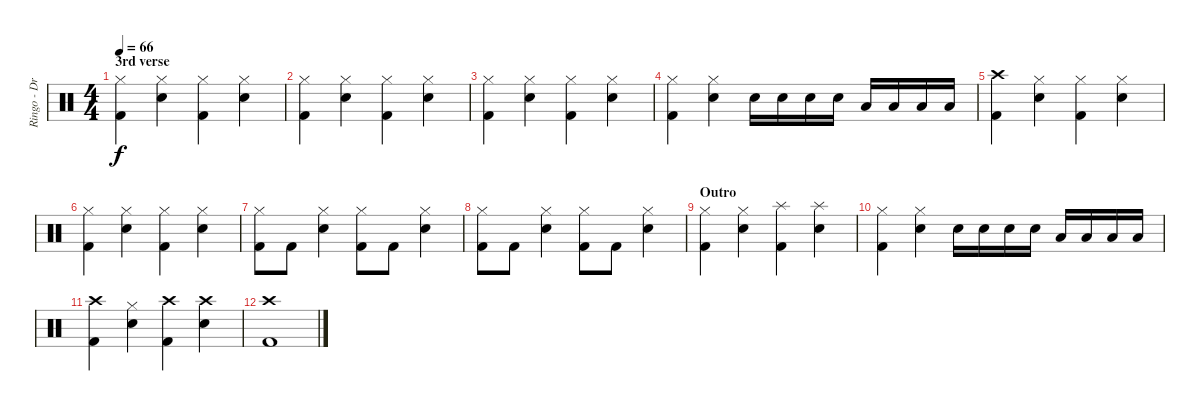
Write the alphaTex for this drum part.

\track ("Ringo - Drums" "Ringo - Dr") {instrument percussion}
\staff {score}
\articulation defaults
\ts (4 4)
\section ("" "3rd verse")
\tempo 66
\clef neutral
\ks c
("Hi-Hat (closed)" "Kick (hit) 2").4{dy f} ("Hi-Hat (closed)" "Snare (hit) 2").4 ("Hi-Hat (closed)" "Kick (hit) 2").4 ("Hi-Hat (closed)" "Snare (hit) 2").4 |
("Hi-Hat (closed)" "Kick (hit) 2").4 ("Hi-Hat (closed)" "Snare (hit) 2").4 ("Hi-Hat (closed)" "Kick (hit) 2").4 ("Hi-Hat (closed)" "Snare (hit) 2").4 |
("Hi-Hat (closed)" "Kick (hit) 2").4 ("Hi-Hat (closed)" "Snare (hit) 2").4 ("Hi-Hat (closed)" "Kick (hit) 2").4 ("Hi-Hat (closed)" "Snare (hit) 2").4 |
("Hi-Hat (closed)" "Kick (hit) 2").4 ("Hi-Hat (closed)" "Snare (hit) 2").4 "Snare (hit) 2".16 "Snare (hit) 2".16 "Snare (hit) 2".16 "Snare (hit) 2".16 "Low Tom (hit)".16 "Low Tom (hit)".16 "Low Tom (hit)".16 "Low Tom (hit)".16 |
("Crash high (hit)" "Kick (hit) 2").4 ("Hi-Hat (closed)" "Snare (hit) 2").4 ("Hi-Hat (closed)" "Kick (hit) 2").4 ("Hi-Hat (closed)" "Snare (hit) 2").4 |
("Hi-Hat (closed)" "Kick (hit) 2").4 ("Hi-Hat (closed)" "Snare (hit) 2").4 ("Hi-Hat (closed)" "Kick (hit) 2").4 ("Hi-Hat (closed)" "Snare (hit) 2").4 |
("Hi-Hat (closed)" "Kick (hit) 2").8 "Kick (hit) 2".8 ("Hi-Hat (closed)" "Snare (hit) 2").4 ("Hi-Hat (closed)" "Kick (hit) 2").8 "Kick (hit) 2".8 ("Hi-Hat (closed)" "Snare (hit) 2").4 |
("Hi-Hat (closed)" "Kick (hit) 2").8 "Kick (hit) 2".8 ("Hi-Hat (closed)" "Snare (hit) 2").4 ("Hi-Hat (closed)" "Kick (hit) 2").8 "Kick (hit) 2".8 ("Hi-Hat (closed)" "Snare (hit) 2").4 |
\section ("" "Outro")
("Hi-Hat (closed)" "Kick (hit) 2").4 ("Hi-Hat (closed)" "Snare (hit) 2").4 ("Splash (hit)" "Kick (hit) 2").4 ("Splash (hit)" "Snare (hit) 2").4 |
("Hi-Hat (closed)" "Kick (hit) 2").4 ("Hi-Hat (closed)" "Snare (hit) 2").4 "Snare (hit) 2".16 "Snare (hit) 2".16 "Snare (hit) 2".16 "Snare (hit) 2".16 "Low Tom (hit)".16 "Low Tom (hit)".16 "Low Tom (hit)".16 "Low Tom (hit)".16 |
("Crash high (hit)" "Kick (hit) 2").4 ("Hi-Hat (closed)" "Snare (hit) 2").4 ("Crash high (hit)" "Kick (hit) 2").4 ("Crash high (hit)" "Snare (hit) 2").4 |
("Crash high (hit)" "Kick (hit) 2").1
